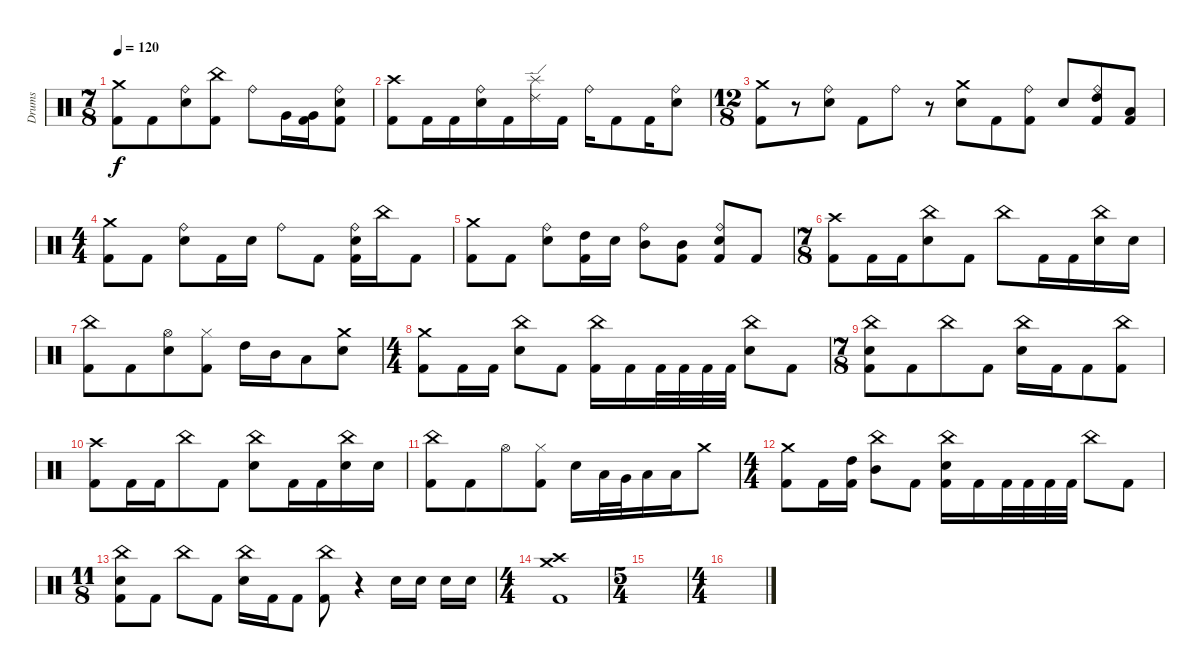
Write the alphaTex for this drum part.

\track ("Drums" "Drums") {instrument percussion}
\staff {score}
\articulation defaults
\ts (7 8)
\tempo 120
\clef neutral
\ks c
("Crash medium (hit)" "Kick (hit) 2").8{dy f} "Kick (hit) 2".8 ("Ride (bell)" "Electric Snare (hit)").8 ("China (hit)" "Kick (hit) 2").8 "Ride (bell)".8 "Very Low Tom (hit)".16 ("Very Low Tom (hit)" "Kick (hit) 2").16 ("Ride (bell)" "Electric Snare (hit)" "Kick (hit) 2").8 |
("Crash high (hit)" "Kick (hit) 2").8 "Kick (hit) 2".16 "Kick (hit) 2".16 ("Ride (bell)" "Electric Snare (hit)").16 "Kick (hit) 2".16 ("Ride (edge) 2" "Splash (hit)").16 "Kick (hit) 2".16 "Ride (bell)".16 "Kick (hit) 2".8 "Kick (hit) 2".16 ("Ride (bell)" "Electric Snare (hit)").8 |
\ts (12 8)
("Crash medium (hit)" "Kick (hit) 2").8 r.8 ("Ride (bell)" "Electric Snare (hit)").8 "Kick (hit) 2".8 "Ride (bell)".8 r.8 ("Crash medium (hit)" "Electric Snare (hit)").8 "Kick (hit) 2".8 ("Ride (bell)" "Kick (hit) 2").8 "Electric Snare (hit)".8 ("Ride (bell)" "High Tom (hit)" "Kick (hit) 2").8 ("Low Tom (hit)" "Kick (hit) 2").8 |
\ts (4 4)
("Crash medium (hit)" "Kick (hit) 2").8 "Kick (hit) 2".8 ("Ride (bell)" "Electric Snare (hit)").8 "Kick (hit) 2".16 "Electric Snare (hit)".16 "Ride (bell)".8 "Kick (hit) 2".8 ("Ride (bell)" "Electric Snare (hit)" "Kick (hit) 2").16 "China (hit)".16 "Kick (hit) 2".8 |
("Crash medium (hit)" "Kick (hit) 2").8 "Kick (hit) 2".8 ("Ride (bell)" "Electric Snare (hit)").8 ("High Tom (hit)" "Kick (hit) 2").16 "Electric Snare (hit)".16 ("Ride (bell)" "Mid Tom (hit)").8 ("Mid Tom (hit)" "Kick (hit) 2").8 ("Ride (bell)" "Electric Snare (hit)" "Kick (hit) 2").8 "Kick (hit) 2".8 |
\ts (7 8)
("Crash high (hit)" "Kick (hit) 2").8 "Kick (hit) 2".16 "Kick (hit) 2".16 ("China (hit)" "Electric Snare (hit)").8 "Kick (hit) 2".8 "China (hit)".8 "Kick (hit) 2".16 "Kick (hit) 2".16 ("China (hit)" "Electric Snare (hit)").16 "Electric Snare (hit)".16 |
("China (hit)" "Kick (hit) 2").8 "Kick (hit) 2".8 ("Hi-Hat (open)" "Electric Snare (hit)").8 ("Hi-Hat (closed)" "Kick (hit) 2").8 "High Tom (hit)".16 "Mid Tom (hit)".16 "Low Tom (hit)".8 ("Crash medium (hit)" "Electric Snare (hit)").8 |
\ts (4 4)
("Crash medium (hit)" "Kick (hit) 2").8 "Kick (hit) 2".16 "Kick (hit) 2".16 ("China (hit)" "Electric Snare (hit)").8 "Kick (hit) 2".8 ("China (hit)" "Kick (hit) 2").16 "Kick (hit) 2".16 "Kick (hit) 2".32 "Kick (hit) 2".32 "Kick (hit) 2".32 "Kick (hit) 2".32 ("China (hit)" "Electric Snare (hit)").8 "Kick (hit) 2".8 |
\ts (7 8)
("China (hit)" "Electric Snare (hit)" "Kick (hit) 2").8 "Kick (hit) 2".8 "China (hit)".8 "Kick (hit) 2".8 ("China (hit)" "Electric Snare (hit)").16 "Kick (hit) 2".16 "Kick (hit) 2".8 ("China (hit)" "Kick (hit) 2").8 |
("Crash high (hit)" "Kick (hit) 2").8 "Kick (hit) 2".16 "Kick (hit) 2".16 "China (hit)".8 "Kick (hit) 2".8 ("China (hit)" "Electric Snare (hit)").8 "Kick (hit) 2".16 "Kick (hit) 2".16 ("China (hit)" "Electric Snare (hit)").16 "Electric Snare (hit)".16 |
("China (hit)" "Kick (hit) 2").8 "Kick (hit) 2".8 "Hi-Hat (open)".8 ("Hi-Hat (closed)" "Kick (hit) 2").8 "Electric Snare (hit)".16 "Low Tom (hit)".32 "Very Low Tom (hit)".32 "Low Floor Tom (hit)".16 "Low Floor Tom (hit)".16 "Crash medium (hit)".8 |
\ts (4 4)
("Crash medium (hit)" "Kick (hit) 2").8 "Kick (hit) 2".16 ("High Tom (hit)" "Kick (hit) 2").16 ("China (hit)" "Mid Tom (hit)").8 "Kick (hit) 2".8 ("China (hit)" "Electric Snare (hit)" "Kick (hit) 2").16 "Kick (hit) 2".16 "Kick (hit) 2".32 "Kick (hit) 2".32 "Kick (hit) 2".32 "Kick (hit) 2".32 "China (hit)".8 "Kick (hit) 2".8 |
\ts (11 8)
("China (hit)" "Electric Snare (hit)" "Kick (hit) 2").8 "Kick (hit) 2".8 "China (hit)".8 "Kick (hit) 2".8 ("China (hit)" "Electric Snare (hit)").16 "Kick (hit) 2".16 "Kick (hit) 2".8 ("China (hit)" "Kick (hit) 2").8 r.4 "Electric Snare (hit)".16 "Electric Snare (hit)".16 "Electric Snare (hit)".16 "Electric Snare (hit)".16 |
\ts (4 4)
("Crash medium (hit)" "Crash high (hit)" "Kick (hit) 2").1 |
\ts (5 4)
|
\ts (4 4)
